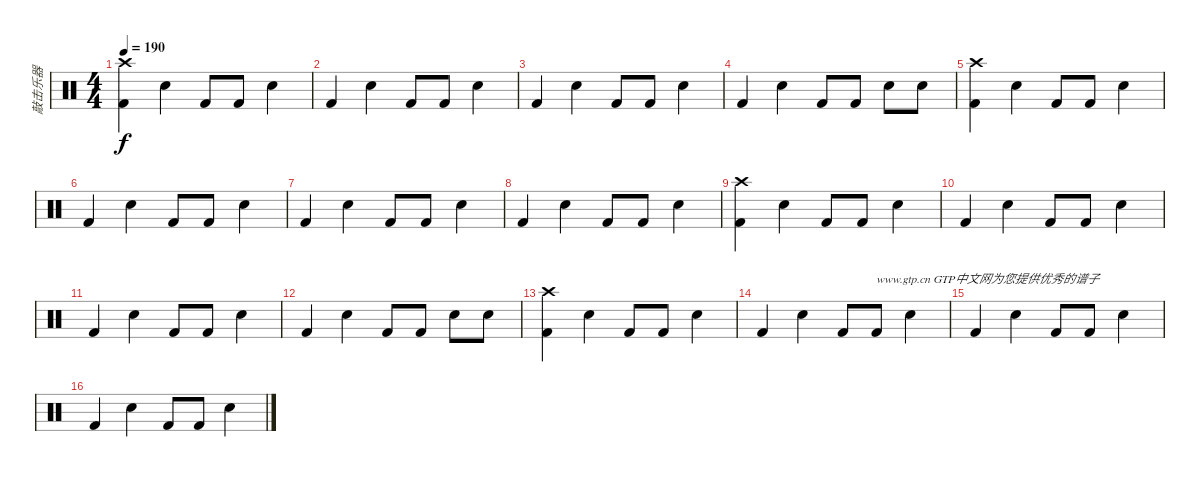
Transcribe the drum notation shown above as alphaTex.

\track ("敲击乐器" "敲击乐器") {instrument percussion}
\staff {score}
\articulation defaults
\ts (4 4)
\tempo 190
\clef neutral
\ks c
("Kick (hit) 2" "Crash high (hit)").4{dy f} "Snare (hit) 2".4 "Kick (hit) 2".8 "Kick (hit) 2".8 "Snare (hit) 2".4 |
"Kick (hit) 2".4 "Snare (hit) 2".4 "Kick (hit) 2".8 "Kick (hit) 2".8 "Snare (hit) 2".4 |
"Kick (hit) 2".4 "Snare (hit) 2".4 "Kick (hit) 2".8 "Kick (hit) 2".8 "Snare (hit) 2".4 |
"Kick (hit) 2".4 "Snare (hit) 2".4 "Kick (hit) 2".8 "Kick (hit) 2".8 "Snare (hit) 2".8 "Snare (hit) 2".8 |
("Kick (hit) 2" "Crash high (hit)").4 "Snare (hit) 2".4 "Kick (hit) 2".8 "Kick (hit) 2".8 "Snare (hit) 2".4 |
"Kick (hit) 2".4 "Snare (hit) 2".4 "Kick (hit) 2".8 "Kick (hit) 2".8 "Snare (hit) 2".4 |
"Kick (hit) 2".4 "Snare (hit) 2".4 "Kick (hit) 2".8 "Kick (hit) 2".8 "Snare (hit) 2".4 |
"Kick (hit) 2".4 "Snare (hit) 2".4 "Kick (hit) 2".8 "Kick (hit) 2".8 "Snare (hit) 2".4 |
("Kick (hit) 2" "Crash high (hit)").4 "Snare (hit) 2".4 "Kick (hit) 2".8 "Kick (hit) 2".8 "Snare (hit) 2".4 |
"Kick (hit) 2".4 "Snare (hit) 2".4 "Kick (hit) 2".8 "Kick (hit) 2".8 "Snare (hit) 2".4 |
"Kick (hit) 2".4 "Snare (hit) 2".4 "Kick (hit) 2".8 "Kick (hit) 2".8 "Snare (hit) 2".4 |
"Kick (hit) 2".4 "Snare (hit) 2".4 "Kick (hit) 2".8 "Kick (hit) 2".8 "Snare (hit) 2".8 "Snare (hit) 2".8 |
("Kick (hit) 2" "Crash high (hit)").4 "Snare (hit) 2".4 "Kick (hit) 2".8 "Kick (hit) 2".8 "Snare (hit) 2".4 |
"Kick (hit) 2".4 "Snare (hit) 2".4 "Kick (hit) 2".8 "Kick (hit) 2".8{txt "www.gtp.cn GTP中文网为您提供优秀的谱子"} "Snare (hit) 2".4 |
"Kick (hit) 2".4 "Snare (hit) 2".4 "Kick (hit) 2".8 "Kick (hit) 2".8 "Snare (hit) 2".4 |
"Kick (hit) 2".4 "Snare (hit) 2".4 "Kick (hit) 2".8 "Kick (hit) 2".8 "Snare (hit) 2".4
